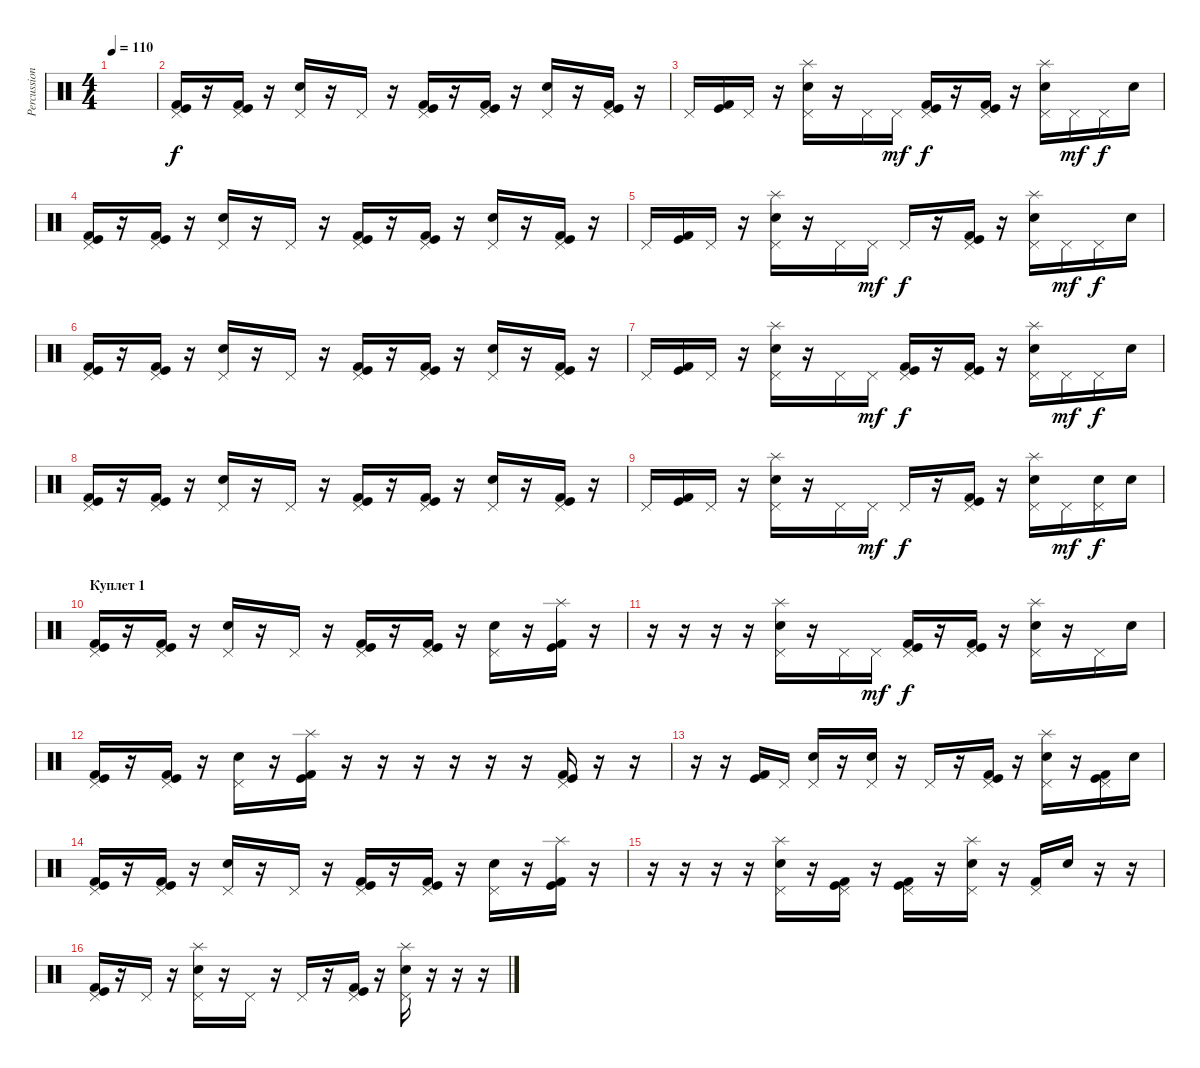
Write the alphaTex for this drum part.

\track ("Percussion" "Percussion") {instrument percussion}
\staff {score}
\articulation defaults
\ts (4 4)
\tempo 110
\clef neutral
\ks c
|
("Pedal Hi-Hat (hit)" "Kick (hit) 2" "Kick (hit)").16 r.16 ("Pedal Hi-Hat (hit)" "Kick (hit)" "Kick (hit) 2").16 r.16 ("Pedal Hi-Hat (hit)" "Snare (hit) 2").16 r.16 "Pedal Hi-Hat (hit)".16 r.16 ("Pedal Hi-Hat (hit)" "Kick (hit)" "Kick (hit) 2").16 r.16 ("Pedal Hi-Hat (hit)" "Kick (hit) 2" "Kick (hit)").16 r.16 ("Pedal Hi-Hat (hit)" "Snare (hit) 2").16 r.16 ("Pedal Hi-Hat (hit)" "Kick (hit)" "Kick (hit) 2").16 r.16 |
"Pedal Hi-Hat (hit)".16 ("Kick (hit)" "Kick (hit) 2").16 "Pedal Hi-Hat (hit)".16 r.16 ("Pedal Hi-Hat (hit)" "Splash (hit)" "Snare (hit) 2").16 r.16 "Pedal Hi-Hat (hit)".16 "Pedal Hi-Hat (hit)".16{dy mf} ("Pedal Hi-Hat (hit)" "Kick (hit) 2" "Kick (hit)").16{dy f} r.16 ("Pedal Hi-Hat (hit)" "Kick (hit)" "Kick (hit) 2").16 r.16 ("Pedal Hi-Hat (hit)" "Splash (hit)" "Snare (hit) 2").16 "Pedal Hi-Hat (hit)".16{dy mf} "Pedal Hi-Hat (hit)".16{dy f} "Snare (hit) 2".16 |
("Pedal Hi-Hat (hit)" "Kick (hit) 2" "Kick (hit)").16 r.16 ("Pedal Hi-Hat (hit)" "Kick (hit)" "Kick (hit) 2").16 r.16 ("Pedal Hi-Hat (hit)" "Snare (hit) 2").16 r.16 "Pedal Hi-Hat (hit)".16 r.16 ("Pedal Hi-Hat (hit)" "Kick (hit)" "Kick (hit) 2").16 r.16 ("Pedal Hi-Hat (hit)" "Kick (hit) 2" "Kick (hit)").16 r.16 ("Pedal Hi-Hat (hit)" "Snare (hit) 2").16 r.16 ("Pedal Hi-Hat (hit)" "Kick (hit)" "Kick (hit) 2").16 r.16 |
"Pedal Hi-Hat (hit)".16 ("Kick (hit)" "Kick (hit) 2").16 "Pedal Hi-Hat (hit)".16 r.16 ("Pedal Hi-Hat (hit)" "Splash (hit)" "Snare (hit) 2").16 r.16 "Pedal Hi-Hat (hit)".16 "Pedal Hi-Hat (hit)".16{dy mf} "Pedal Hi-Hat (hit)".16{dy f} r.16 ("Pedal Hi-Hat (hit)" "Kick (hit)" "Kick (hit) 2").16 r.16 ("Pedal Hi-Hat (hit)" "Splash (hit)" "Snare (hit) 2").16 "Pedal Hi-Hat (hit)".16{dy mf} "Pedal Hi-Hat (hit)".16{dy f} "Snare (hit) 2".16 |
("Pedal Hi-Hat (hit)" "Kick (hit) 2" "Kick (hit)").16 r.16 ("Pedal Hi-Hat (hit)" "Kick (hit)" "Kick (hit) 2").16 r.16 ("Pedal Hi-Hat (hit)" "Snare (hit) 2").16 r.16 "Pedal Hi-Hat (hit)".16 r.16 ("Pedal Hi-Hat (hit)" "Kick (hit)" "Kick (hit) 2").16 r.16 ("Pedal Hi-Hat (hit)" "Kick (hit) 2" "Kick (hit)").16 r.16 ("Pedal Hi-Hat (hit)" "Snare (hit) 2").16 r.16 ("Pedal Hi-Hat (hit)" "Kick (hit)" "Kick (hit) 2").16 r.16 |
"Pedal Hi-Hat (hit)".16 ("Kick (hit)" "Kick (hit) 2").16 "Pedal Hi-Hat (hit)".16 r.16 ("Pedal Hi-Hat (hit)" "Splash (hit)" "Snare (hit) 2").16 r.16 "Pedal Hi-Hat (hit)".16 "Pedal Hi-Hat (hit)".16{dy mf} ("Pedal Hi-Hat (hit)" "Kick (hit) 2" "Kick (hit)").16{dy f} r.16 ("Pedal Hi-Hat (hit)" "Kick (hit)" "Kick (hit) 2").16 r.16 ("Pedal Hi-Hat (hit)" "Splash (hit)" "Snare (hit) 2").16 "Pedal Hi-Hat (hit)".16{dy mf} "Pedal Hi-Hat (hit)".16{dy f} "Snare (hit) 2".16 |
("Pedal Hi-Hat (hit)" "Kick (hit) 2" "Kick (hit)").16 r.16 ("Pedal Hi-Hat (hit)" "Kick (hit)" "Kick (hit) 2").16 r.16 ("Pedal Hi-Hat (hit)" "Snare (hit) 2").16 r.16 "Pedal Hi-Hat (hit)".16 r.16 ("Pedal Hi-Hat (hit)" "Kick (hit)" "Kick (hit) 2").16 r.16 ("Pedal Hi-Hat (hit)" "Kick (hit) 2" "Kick (hit)").16 r.16 ("Pedal Hi-Hat (hit)" "Snare (hit) 2").16 r.16 ("Pedal Hi-Hat (hit)" "Kick (hit)" "Kick (hit) 2").16 r.16 |
"Pedal Hi-Hat (hit)".16 ("Kick (hit)" "Kick (hit) 2").16 "Pedal Hi-Hat (hit)".16 r.16 ("Pedal Hi-Hat (hit)" "Splash (hit)" "Snare (hit) 2").16 r.16 "Pedal Hi-Hat (hit)".16 "Pedal Hi-Hat (hit)".16{dy mf} "Pedal Hi-Hat (hit)".16{dy f} r.16 ("Pedal Hi-Hat (hit)" "Kick (hit)" "Kick (hit) 2").16 r.16 ("Pedal Hi-Hat (hit)" "Splash (hit)" "Snare (hit) 2").16 "Pedal Hi-Hat (hit)".16{dy mf} ("Pedal Hi-Hat (hit)" "Snare (hit) 2").16{dy f} "Snare (hit) 2".16 |
\section ("" "Куплет 1")
("Pedal Hi-Hat (hit)" "Kick (hit) 2" "Kick (hit)").16 r.16 ("Pedal Hi-Hat (hit)" "Kick (hit)" "Kick (hit) 2").16 r.16 ("Pedal Hi-Hat (hit)" "Snare (hit) 2").16 r.16 "Pedal Hi-Hat (hit)".16 r.16 ("Pedal Hi-Hat (hit)" "Kick (hit)" "Kick (hit) 2").16 r.16 ("Pedal Hi-Hat (hit)" "Kick (hit) 2" "Kick (hit)").16 r.16 ("Pedal Hi-Hat (hit)" "Snare (hit) 2").16 r.16 ("Splash (hit)" "Kick (hit) 2" "Kick (hit)").16 r.16 |
r.16 r.16 r.16 r.16 ("Pedal Hi-Hat (hit)" "Splash (hit)" "Snare (hit) 2").16 r.16 "Pedal Hi-Hat (hit)".16 "Pedal Hi-Hat (hit)".16{dy mf} ("Pedal Hi-Hat (hit)" "Kick (hit) 2" "Kick (hit)").16{dy f} r.16 ("Pedal Hi-Hat (hit)" "Kick (hit)" "Kick (hit) 2").16 r.16 ("Pedal Hi-Hat (hit)" "Splash (hit)" "Snare (hit) 2").16 r.16 "Pedal Hi-Hat (hit)".16 "Snare (hit) 2".16 |
("Pedal Hi-Hat (hit)" "Kick (hit) 2" "Kick (hit)").16 r.16 ("Pedal Hi-Hat (hit)" "Kick (hit)" "Kick (hit) 2").16 r.16 ("Pedal Hi-Hat (hit)" "Snare (hit) 2").16 r.16 ("Splash (hit)" "Kick (hit)" "Kick (hit) 2").16 r.16 r.16 r.16 r.16 r.16 r.16 ("Pedal Hi-Hat (hit)" "Kick (hit)" "Kick (hit) 2").16 r.16 r.16 |
r.16 r.16 ("Kick (hit) 2" "Kick (hit)").16 "Pedal Hi-Hat (hit)".16 ("Pedal Hi-Hat (hit)" "Snare (hit) 2").16 r.16 ("Pedal Hi-Hat (hit)" "Snare (hit) 2").16 r.16 "Pedal Hi-Hat (hit)".16 r.16 ("Pedal Hi-Hat (hit)" "Kick (hit)" "Kick (hit) 2").16 r.16 ("Pedal Hi-Hat (hit)" "Splash (hit)" "Snare (hit) 2").16 r.16 ("Pedal Hi-Hat (hit)" "Kick (hit) 2" "Kick (hit)").16 "Snare (hit) 2".16 |
("Pedal Hi-Hat (hit)" "Kick (hit) 2" "Kick (hit)").16 r.16 ("Pedal Hi-Hat (hit)" "Kick (hit)" "Kick (hit) 2").16 r.16 ("Pedal Hi-Hat (hit)" "Snare (hit) 2").16 r.16 "Pedal Hi-Hat (hit)".16 r.16 ("Pedal Hi-Hat (hit)" "Kick (hit)" "Kick (hit) 2").16 r.16 ("Pedal Hi-Hat (hit)" "Kick (hit) 2" "Kick (hit)").16 r.16 ("Pedal Hi-Hat (hit)" "Snare (hit) 2").16 r.16 ("Splash (hit)" "Kick (hit) 2" "Kick (hit)").16 r.16 |
r.16 r.16 r.16 r.16 ("Pedal Hi-Hat (hit)" "Splash (hit)" "Snare (hit) 2").16 r.16 ("Pedal Hi-Hat (hit)" "Kick (hit) 2" "Kick (hit)").16 r.16 ("Pedal Hi-Hat (hit)" "Kick (hit)" "Kick (hit) 2").16 r.16 ("Pedal Hi-Hat (hit)" "Splash (hit)" "Snare (hit) 2").16 r.16 ("Pedal Hi-Hat (hit)" "Kick (hit) 2").16 "Snare (hit) 2".16 r.16 r.16 |
("Pedal Hi-Hat (hit)" "Kick (hit) 2" "Kick (hit)").16 r.16 "Pedal Hi-Hat (hit)".16 r.16 ("Pedal Hi-Hat (hit)" "Splash (hit)" "Snare (hit) 2").16 r.16 "Pedal Hi-Hat (hit)".16 r.16 "Pedal Hi-Hat (hit)".16 r.16 ("Pedal Hi-Hat (hit)" "Kick (hit) 2" "Kick (hit)").16 r.16 ("Pedal Hi-Hat (hit)" "Splash (hit)" "Snare (hit) 2").16 r.16 r.16 r.16
